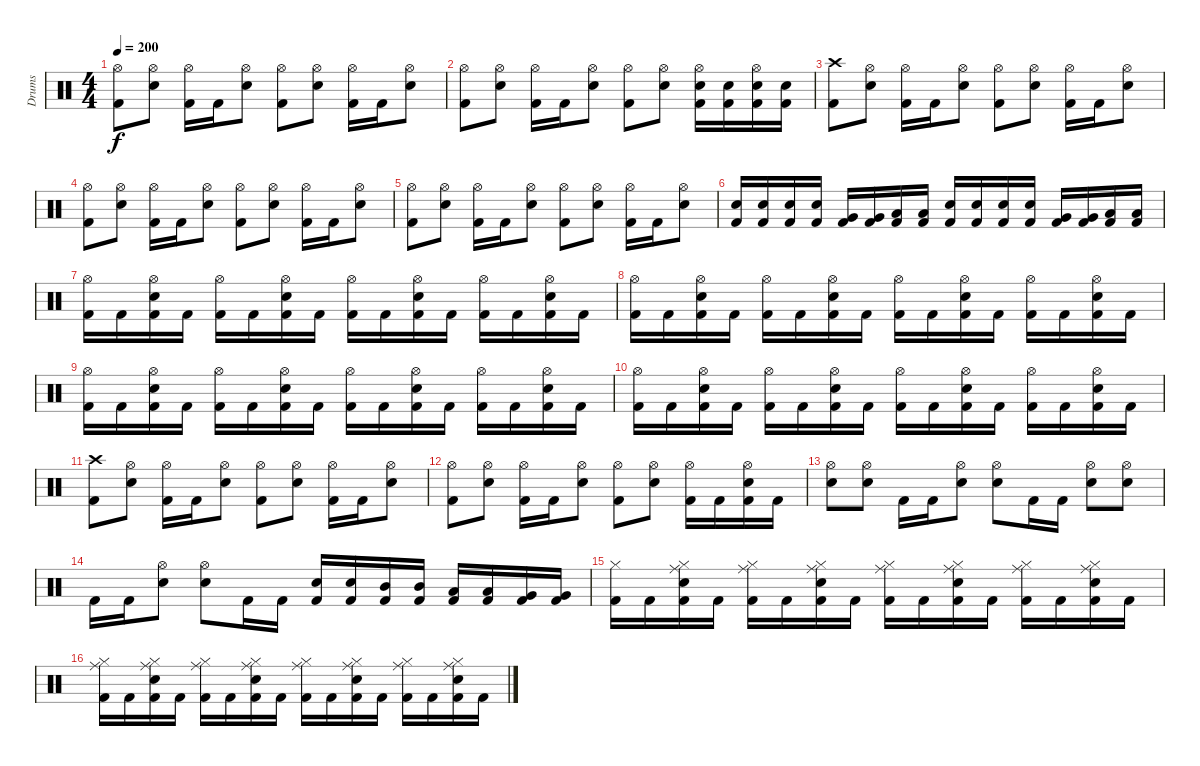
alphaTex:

\track ("Drums" "Drums") {instrument percussion}
\staff {score}
\articulation defaults
\ts (4 4)
\tempo 200
\clef neutral
\ks c
("Hi-Hat (open)" "Kick (hit) 2").8{dy f} ("Hi-Hat (open)" "Snare (hit) 2").8 ("Hi-Hat (open)" "Kick (hit) 2").16 "Kick (hit) 2".16 ("Hi-Hat (open)" "Snare (hit) 2").8 ("Hi-Hat (open)" "Kick (hit) 2").8 ("Hi-Hat (open)" "Snare (hit) 2").8 ("Hi-Hat (open)" "Kick (hit) 2").16 "Kick (hit) 2".16 ("Hi-Hat (open)" "Snare (hit) 2").8 |
("Hi-Hat (open)" "Kick (hit) 2").8 ("Hi-Hat (open)" "Snare (hit) 2").8 ("Hi-Hat (open)" "Kick (hit) 2").16 "Kick (hit) 2".16 ("Hi-Hat (open)" "Snare (hit) 2").8 ("Hi-Hat (open)" "Kick (hit) 2").8 ("Hi-Hat (open)" "Snare (hit) 2").8 ("Hi-Hat (open)" "Snare (hit) 2" "Kick (hit) 2").16 ("Snare (hit) 2" "Kick (hit) 2").16 ("Hi-Hat (open)" "Snare (hit) 2" "Kick (hit) 2").16 ("Snare (hit) 2" "Kick (hit) 2").16 |
("Crash high (hit)" "Kick (hit) 2").8 ("Hi-Hat (open)" "Snare (hit) 2").8 ("Hi-Hat (open)" "Kick (hit) 2").16 "Kick (hit) 2".16 ("Hi-Hat (open)" "Snare (hit) 2").8 ("Hi-Hat (open)" "Kick (hit) 2").8 ("Hi-Hat (open)" "Snare (hit) 2").8 ("Hi-Hat (open)" "Kick (hit) 2").16 "Kick (hit) 2".16 ("Hi-Hat (open)" "Snare (hit) 2").8 |
("Hi-Hat (open)" "Kick (hit) 2").8 ("Hi-Hat (open)" "Snare (hit) 2").8 ("Hi-Hat (open)" "Kick (hit) 2").16 "Kick (hit) 2".16 ("Hi-Hat (open)" "Snare (hit) 2").8 ("Hi-Hat (open)" "Kick (hit) 2").8 ("Hi-Hat (open)" "Snare (hit) 2").8 ("Hi-Hat (open)" "Kick (hit) 2").16 "Kick (hit) 2".16 ("Hi-Hat (open)" "Snare (hit) 2").8 |
("Hi-Hat (open)" "Kick (hit) 2").8 ("Hi-Hat (open)" "Snare (hit) 2").8 ("Hi-Hat (open)" "Kick (hit) 2").16 "Kick (hit) 2".16 ("Hi-Hat (open)" "Snare (hit) 2").8 ("Hi-Hat (open)" "Kick (hit) 2").8 ("Hi-Hat (open)" "Snare (hit) 2").8 ("Hi-Hat (open)" "Kick (hit) 2").16 "Kick (hit) 2".16 ("Hi-Hat (open)" "Snare (hit) 2").8 |
("Snare (hit) 2" "Kick (hit) 2").16 ("Snare (hit) 2" "Kick (hit) 2").16 ("Snare (hit) 2" "Kick (hit) 2").16 ("Snare (hit) 2" "Kick (hit) 2").16 ("Very Low Tom (hit)" "Kick (hit) 2").16 ("Very Low Tom (hit)" "Kick (hit) 2").16 ("Low Floor Tom (hit)" "Kick (hit) 2").16 ("Low Floor Tom (hit)" "Kick (hit) 2").16 ("Snare (hit) 2" "Kick (hit) 2").16 ("Snare (hit) 2" "Kick (hit) 2").16 ("Snare (hit) 2" "Kick (hit) 2").16 ("Snare (hit) 2" "Kick (hit) 2").16 ("Very Low Tom (hit)" "Kick (hit) 2").16 ("Very Low Tom (hit)" "Kick (hit) 2").16 ("Low Floor Tom (hit)" "Kick (hit) 2").16 ("Low Floor Tom (hit)" "Kick (hit) 2").16 |
("Hi-Hat (open)" "Kick (hit) 2").16 "Kick (hit) 2".16 ("Hi-Hat (open)" "Snare (hit) 2" "Kick (hit) 2").16 "Kick (hit) 2".16 ("Hi-Hat (open)" "Kick (hit) 2").16 "Kick (hit) 2".16 ("Hi-Hat (open)" "Snare (hit) 2" "Kick (hit) 2").16 "Kick (hit) 2".16 ("Hi-Hat (open)" "Kick (hit) 2").16 "Kick (hit) 2".16 ("Hi-Hat (open)" "Snare (hit) 2" "Kick (hit) 2").16 "Kick (hit) 2".16 ("Hi-Hat (open)" "Kick (hit) 2").16 "Kick (hit) 2".16 ("Hi-Hat (open)" "Snare (hit) 2" "Kick (hit) 2").16 "Kick (hit) 2".16 |
("Hi-Hat (open)" "Kick (hit) 2").16 "Kick (hit) 2".16 ("Hi-Hat (open)" "Snare (hit) 2" "Kick (hit) 2").16 "Kick (hit) 2".16 ("Hi-Hat (open)" "Kick (hit) 2").16 "Kick (hit) 2".16 ("Hi-Hat (open)" "Snare (hit) 2" "Kick (hit) 2").16 "Kick (hit) 2".16 ("Hi-Hat (open)" "Kick (hit) 2").16 "Kick (hit) 2".16 ("Hi-Hat (open)" "Snare (hit) 2" "Kick (hit) 2").16 "Kick (hit) 2".16 ("Hi-Hat (open)" "Kick (hit) 2").16 "Kick (hit) 2".16 ("Hi-Hat (open)" "Snare (hit) 2" "Kick (hit) 2").16 "Kick (hit) 2".16 |
("Hi-Hat (open)" "Kick (hit) 2").16 "Kick (hit) 2".16 ("Hi-Hat (open)" "Snare (hit) 2" "Kick (hit) 2").16 "Kick (hit) 2".16 ("Hi-Hat (open)" "Kick (hit) 2").16 "Kick (hit) 2".16 ("Hi-Hat (open)" "Snare (hit) 2" "Kick (hit) 2").16 "Kick (hit) 2".16 ("Hi-Hat (open)" "Kick (hit) 2").16 "Kick (hit) 2".16 ("Hi-Hat (open)" "Snare (hit) 2" "Kick (hit) 2").16 "Kick (hit) 2".16 ("Hi-Hat (open)" "Kick (hit) 2").16 "Kick (hit) 2".16 ("Hi-Hat (open)" "Snare (hit) 2" "Kick (hit) 2").16 "Kick (hit) 2".16 |
("Hi-Hat (open)" "Kick (hit) 2").16 "Kick (hit) 2".16 ("Hi-Hat (open)" "Snare (hit) 2" "Kick (hit) 2").16 "Kick (hit) 2".16 ("Hi-Hat (open)" "Kick (hit) 2").16 "Kick (hit) 2".16 ("Hi-Hat (open)" "Snare (hit) 2" "Kick (hit) 2").16 "Kick (hit) 2".16 ("Hi-Hat (open)" "Kick (hit) 2").16 "Kick (hit) 2".16 ("Hi-Hat (open)" "Snare (hit) 2" "Kick (hit) 2").16 "Kick (hit) 2".16 ("Hi-Hat (open)" "Kick (hit) 2").16 "Kick (hit) 2".16 ("Hi-Hat (open)" "Snare (hit) 2" "Kick (hit) 2").16 "Kick (hit) 2".16 |
("Crash high (hit)" "Kick (hit) 2").8 ("Hi-Hat (open)" "Snare (hit) 2").8 ("Hi-Hat (open)" "Kick (hit) 2").16 "Kick (hit) 2".16 ("Hi-Hat (open)" "Snare (hit) 2").8 ("Hi-Hat (open)" "Kick (hit) 2").8 ("Hi-Hat (open)" "Snare (hit) 2").8 ("Hi-Hat (open)" "Kick (hit) 2").16 "Kick (hit) 2".16 ("Hi-Hat (open)" "Snare (hit) 2").8 |
("Hi-Hat (open)" "Kick (hit) 2").8 ("Hi-Hat (open)" "Snare (hit) 2").8 ("Hi-Hat (open)" "Kick (hit) 2").16 "Kick (hit) 2".16 ("Hi-Hat (open)" "Snare (hit) 2").8 ("Hi-Hat (open)" "Kick (hit) 2").8 ("Hi-Hat (open)" "Snare (hit) 2").8 ("Hi-Hat (open)" "Kick (hit) 2").16 "Kick (hit) 2".16 ("Hi-Hat (open)" "Snare (hit) 2" "Kick (hit) 2").16 "Kick (hit) 2".16 |
("Hi-Hat (open)" "Snare (hit) 2").8 ("Hi-Hat (open)" "Snare (hit) 2").8 "Kick (hit) 2".16 "Kick (hit) 2".16 ("Hi-Hat (open)" "Snare (hit) 2").8 ("Hi-Hat (open)" "Snare (hit) 2").8 "Kick (hit) 2".16 "Kick (hit) 2".16 ("Hi-Hat (open)" "Snare (hit) 2").8 ("Hi-Hat (open)" "Snare (hit) 2").8 |
"Kick (hit) 2".16 "Kick (hit) 2".16 ("Hi-Hat (open)" "Snare (hit) 2").8 ("Hi-Hat (open)" "Snare (hit) 2").8 "Kick (hit) 2".16 "Kick (hit) 2".16 ("Snare (hit) 2" "Kick (hit) 2").16 ("Snare (hit) 2" "Kick (hit) 2").16 ("Mid Tom (hit)" "Kick (hit) 2").16 ("Mid Tom (hit)" "Kick (hit) 2").16 ("Low Tom (hit)" "Kick (hit) 2").16 ("Low Tom (hit)" "Kick (hit) 2").16 ("Very Low Tom (hit)" "Kick (hit) 2").16 ("Very Low Tom (hit)" "Kick (hit) 2").16 |
("Hi-Hat (closed)" "Kick (hit) 2").16 "Kick (hit) 2".16 ("Hi-Hat (closed)" "Ride (middle)" "Snare (hit) 2" "Kick (hit) 2").16 "Kick (hit) 2".16 ("Hi-Hat (closed)" "Ride (middle)" "Kick (hit) 2").16 "Kick (hit) 2".16 ("Hi-Hat (closed)" "Ride (middle)" "Snare (hit) 2" "Kick (hit) 2").16 "Kick (hit) 2".16 ("Hi-Hat (closed)" "Ride (middle)" "Kick (hit) 2").16 "Kick (hit) 2".16 ("Hi-Hat (closed)" "Ride (middle)" "Snare (hit) 2" "Kick (hit) 2").16 "Kick (hit) 2".16 ("Hi-Hat (closed)" "Ride (middle)" "Kick (hit) 2").16 "Kick (hit) 2".16 ("Hi-Hat (closed)" "Ride (middle)" "Snare (hit) 2" "Kick (hit) 2").16 "Kick (hit) 2".16 |
("Hi-Hat (closed)" "Ride (middle)" "Kick (hit) 2").16 "Kick (hit) 2".16 ("Hi-Hat (closed)" "Ride (middle)" "Snare (hit) 2" "Kick (hit) 2").16 "Kick (hit) 2".16 ("Hi-Hat (closed)" "Ride (middle)" "Kick (hit) 2").16 "Kick (hit) 2".16 ("Hi-Hat (closed)" "Ride (middle)" "Snare (hit) 2" "Kick (hit) 2").16 "Kick (hit) 2".16 ("Hi-Hat (closed)" "Ride (middle)" "Kick (hit) 2").16 "Kick (hit) 2".16 ("Hi-Hat (closed)" "Ride (middle)" "Snare (hit) 2" "Kick (hit) 2").16 "Kick (hit) 2".16 ("Hi-Hat (closed)" "Ride (middle)" "Kick (hit) 2").16 "Kick (hit) 2".16 ("Hi-Hat (closed)" "Ride (middle)" "Snare (hit) 2" "Kick (hit) 2").16 "Kick (hit) 2".16
